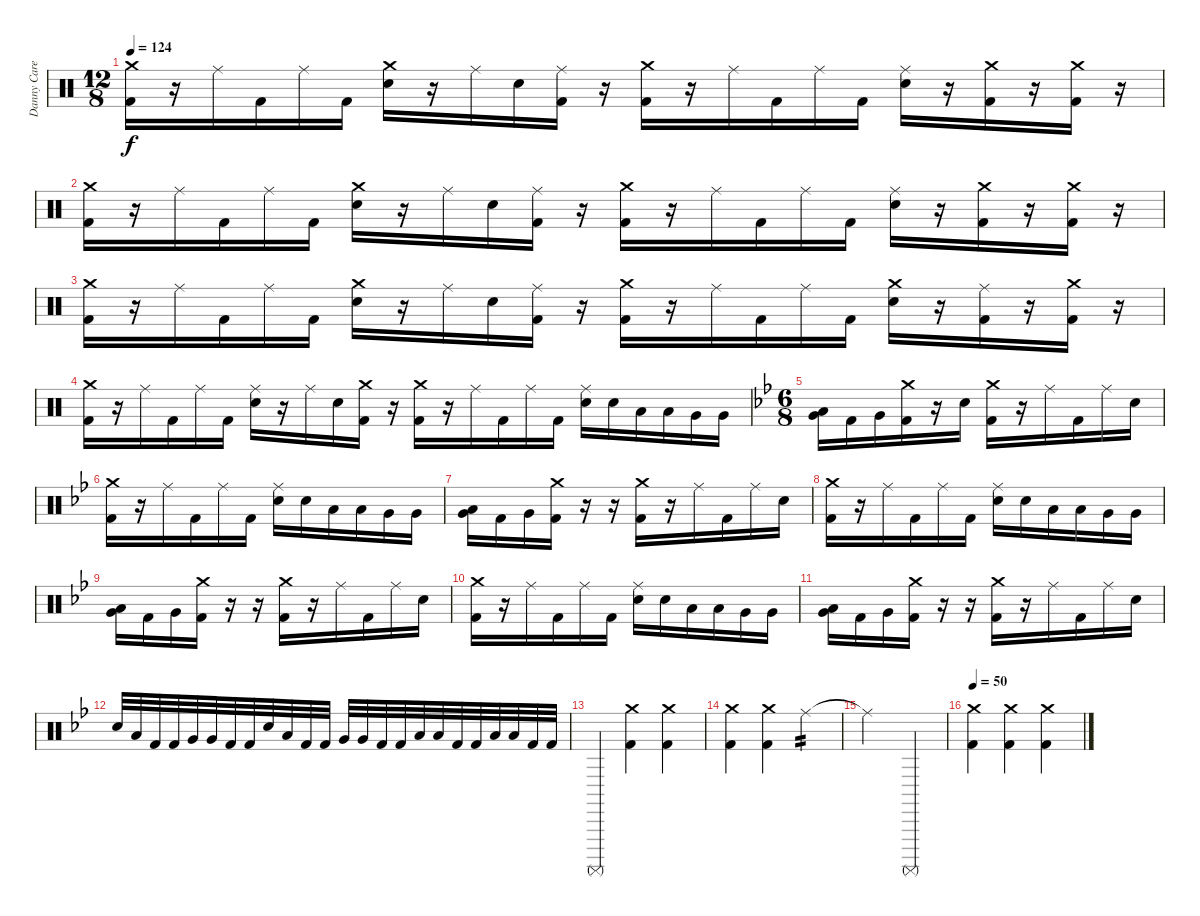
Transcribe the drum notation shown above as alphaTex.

\track ("Danny Carey" "Danny Care") {instrument percussion}
\staff {score}
\articulation defaults
\ts (12 8)
\tempo 124
\clef neutral
\ks c
("Crash medium (hit)" "Kick (hit) 2").16{dy f} r.16 "Ride (middle)".16 "Kick (hit) 2".16 "Ride (middle)".16 "Kick (hit) 2".16 ("Crash medium (hit)" "Electric Snare (hit)").16 r.16 "Ride (middle)".16 "Electric Snare (hit)".16 ("Ride (middle)" "Kick (hit) 2").16 r.16 ("Crash medium (hit)" "Kick (hit) 2").16 r.16 "Ride (middle)".16 "Kick (hit) 2".16 "Ride (middle)".16 "Kick (hit) 2".16 ("Ride (middle)" "Electric Snare (hit)").16 r.16 ("Crash medium (hit)" "Kick (hit) 2").16 r.16 ("Crash medium (hit)" "Kick (hit) 2").16 r.16 |
("Crash medium (hit)" "Kick (hit) 2").16 r.16 "Ride (middle)".16 "Kick (hit) 2".16 "Ride (middle)".16 "Kick (hit) 2".16 ("Crash medium (hit)" "Electric Snare (hit)").16 r.16 "Ride (middle)".16 "Electric Snare (hit)".16 ("Ride (middle)" "Kick (hit) 2").16 r.16 ("Crash medium (hit)" "Kick (hit) 2").16 r.16 "Ride (middle)".16 "Kick (hit) 2".16 "Ride (middle)".16 "Kick (hit) 2".16 ("Ride (middle)" "Electric Snare (hit)").16 r.16 ("Crash medium (hit)" "Kick (hit) 2").16 r.16 ("Crash medium (hit)" "Kick (hit) 2").16 r.16 |
("Crash medium (hit)" "Kick (hit) 2").16 r.16 "Ride (middle)".16 "Kick (hit) 2".16 "Ride (middle)".16 "Kick (hit) 2".16 ("Crash medium (hit)" "Electric Snare (hit)").16 r.16 "Ride (middle)".16 "Electric Snare (hit)".16 ("Ride (middle)" "Kick (hit) 2").16 r.16 ("Crash medium (hit)" "Kick (hit) 2").16 r.16 "Ride (middle)".16 "Kick (hit) 2".16 "Ride (middle)".16 "Kick (hit) 2".16 ("Crash medium (hit)" "Electric Snare (hit)").16 r.16 ("Ride (middle)" "Kick (hit) 2").16 r.16 ("Crash medium (hit)" "Kick (hit) 2").16 r.16 |
("Crash medium (hit)" "Kick (hit) 2").16 r.16 "Ride (middle)".16 "Kick (hit) 2".16 "Ride (middle)".16 "Kick (hit) 2".16 ("Ride (middle)" "Electric Snare (hit)").16 r.16 "Ride (middle)".16 "Electric Snare (hit)".16 ("Crash medium (hit)" "Kick (hit) 2").16 r.16 ("Crash medium (hit)" "Kick (hit) 2").16 r.16 "Ride (middle)".16 "Kick (hit) 2".16 "Ride (middle)".16 "Kick (hit) 2".16 ("Ride (middle)" "Electric Snare (hit)").16 "Electric Snare (hit)".16 "Low Tom (hit)".16 "Low Tom (hit)".16 "Very Low Tom (hit)".16 "Very Low Tom (hit)".16 |
\ts (6 8)
\ks bb
("Very Low Tom (hit)" "Low Floor Tom (hit)").16 "Kick (hit) 2".16 "Very Low Tom (hit)".16 ("Crash medium (hit)" "Kick (hit) 2").16 r.16 "Electric Snare (hit)".16 ("Crash medium (hit)" "Kick (hit) 2").16 r.16 "Ride (middle)".16 "Kick (hit) 2".16 "Ride (middle)".16 "Electric Snare (hit)".16 |
("Crash medium (hit)" "Kick (hit) 2").16 r.16 "Ride (middle)".16 "Kick (hit) 2".16 "Ride (middle)".16 "Kick (hit) 2".16 ("Ride (middle)" "Electric Snare (hit)").16 "Electric Snare (hit)".16 "Low Tom (hit)".16 "Low Tom (hit)".16 "Very Low Tom (hit)".16 "Very Low Tom (hit)".16 |
("Very Low Tom (hit)" "Low Floor Tom (hit)").16 "Kick (hit) 2".16 "Very Low Tom (hit)".16 ("Crash medium (hit)" "Kick (hit) 2").16 r.16 r.16 ("Crash medium (hit)" "Kick (hit) 2").16 r.16 "Ride (middle)".16 "Kick (hit) 2".16 "Ride (middle)".16 "Electric Snare (hit)".16 |
("Crash medium (hit)" "Kick (hit) 2").16 r.16 "Ride (middle)".16 "Kick (hit) 2".16 "Ride (middle)".16 "Kick (hit) 2".16 ("Ride (middle)" "Electric Snare (hit)").16 "Electric Snare (hit)".16 "Low Tom (hit)".16 "Low Tom (hit)".16 "Very Low Tom (hit)".16 "Very Low Tom (hit)".16 |
("Very Low Tom (hit)" "Low Floor Tom (hit)").16 "Kick (hit) 2".16 "Very Low Tom (hit)".16 ("Crash medium (hit)" "Kick (hit) 2").16 r.16 r.16 ("Crash medium (hit)" "Kick (hit) 2").16 r.16 "Ride (middle)".16 "Kick (hit) 2".16 "Ride (middle)".16 "Electric Snare (hit)".16 |
("Crash medium (hit)" "Kick (hit) 2").16 r.16 "Ride (middle)".16 "Kick (hit) 2".16 "Ride (middle)".16 "Kick (hit) 2".16 ("Ride (middle)" "Electric Snare (hit)").16 "Electric Snare (hit)".16 "Low Tom (hit)".16 "Low Tom (hit)".16 "Very Low Tom (hit)".16 "Very Low Tom (hit)".16 |
("Very Low Tom (hit)" "Low Floor Tom (hit)").16 "Kick (hit) 2".16 "Very Low Tom (hit)".16 ("Crash medium (hit)" "Kick (hit) 2").16 r.16 r.16 ("Crash medium (hit)" "Kick (hit) 2").16 r.16 "Ride (middle)".16 "Kick (hit) 2".16 "Ride (middle)".16 "Electric Snare (hit)".16 |
"Electric Snare (hit)".32 "Low Tom (hit)".32 "Kick (hit) 2".32 "Kick (hit) 2".32 "Very Low Tom (hit)".32 "Very Low Tom (hit)".32 "Kick (hit) 2".32 "Kick (hit) 2".32 "Electric Snare (hit)".32 "Low Tom (hit)".32 "Kick (hit) 2".32 "Kick (hit) 2".32 "Very Low Tom (hit)".32 "Very Low Tom (hit)".32 "Kick (hit) 2".32 "Kick (hit) 2".32 "Low Floor Tom (hit)".32 "Low Floor Tom (hit)".32 "Kick (hit) 2".32 "Kick (hit) 2".32 "Low Floor Tom (hit)".32 "Low Floor Tom (hit)".32 "Kick (hit) 2".32 "Kick (hit) 2".32 |
"Surdo (mute)".4 ("Crash medium (hit)" "Kick (hit) 2").4 ("Crash medium (hit)" "Kick (hit) 2").4 |
("Crash medium (hit)" "Kick (hit) 2").4 ("Crash medium (hit)" "Kick (hit) 2").4 "Ride (middle)".4{tp 2} |
"Ride (middle)"{t}.2 "Surdo (mute)".4 |
\tempo 50
("Crash medium (hit)" "Kick (hit) 2").4 ("Crash medium (hit)" "Kick (hit) 2").4 ("Crash medium (hit)" "Kick (hit) 2").4
